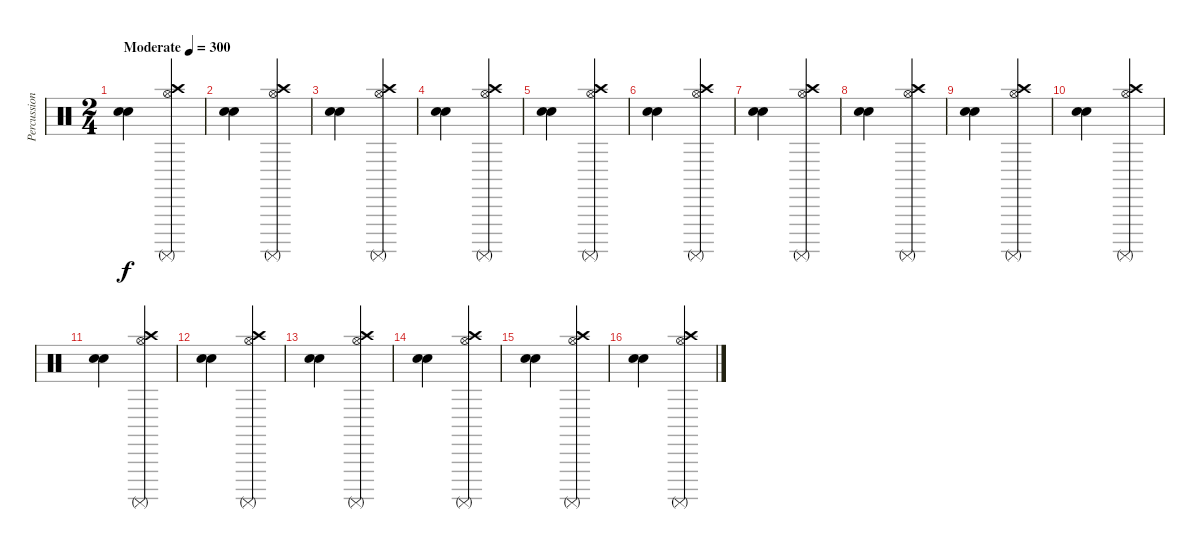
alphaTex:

\track ("Percussioni" "Percussion") {instrument percussion}
\staff {score}
\articulation defaults
\ts (2 4)
\tempo (300 "Moderate")
\clef neutral
\ks c
("Snare (hit) 2" "Snare (hit) 2").4{dy f} ("Hi-Hat (open)" "Crash high (hit)" "Surdo (mute)").4 |
("Snare (hit) 2" "Snare (hit) 2").4 ("Hi-Hat (open)" "Crash high (hit)" "Surdo (mute)").4 |
("Snare (hit) 2" "Snare (hit) 2").4 ("Hi-Hat (open)" "Crash high (hit)" "Surdo (mute)").4 |
("Snare (hit) 2" "Snare (hit) 2").4 ("Hi-Hat (open)" "Crash high (hit)" "Surdo (mute)").4 |
("Snare (hit) 2" "Snare (hit) 2").4 ("Hi-Hat (open)" "Crash high (hit)" "Surdo (mute)").4 |
("Snare (hit) 2" "Snare (hit) 2").4 ("Hi-Hat (open)" "Crash high (hit)" "Surdo (mute)").4 |
("Snare (hit) 2" "Snare (hit) 2").4 ("Hi-Hat (open)" "Crash high (hit)" "Surdo (mute)").4 |
("Snare (hit) 2" "Snare (hit) 2").4 ("Hi-Hat (open)" "Crash high (hit)" "Surdo (mute)").4 |
("Snare (hit) 2" "Snare (hit) 2").4 ("Hi-Hat (open)" "Crash high (hit)" "Surdo (mute)").4 |
("Snare (hit) 2" "Snare (hit) 2").4 ("Hi-Hat (open)" "Crash high (hit)" "Surdo (mute)").4 |
("Snare (hit) 2" "Snare (hit) 2").4 ("Hi-Hat (open)" "Crash high (hit)" "Surdo (mute)").4 |
("Snare (hit) 2" "Snare (hit) 2").4 ("Hi-Hat (open)" "Crash high (hit)" "Surdo (mute)").4 |
("Snare (hit) 2" "Snare (hit) 2").4 ("Hi-Hat (open)" "Crash high (hit)" "Surdo (mute)").4 |
("Snare (hit) 2" "Snare (hit) 2").4 ("Hi-Hat (open)" "Crash high (hit)" "Surdo (mute)").4 |
("Snare (hit) 2" "Snare (hit) 2").4 ("Hi-Hat (open)" "Crash high (hit)" "Surdo (mute)").4 |
("Snare (hit) 2" "Snare (hit) 2").4 ("Hi-Hat (open)" "Crash high (hit)" "Surdo (mute)").4
